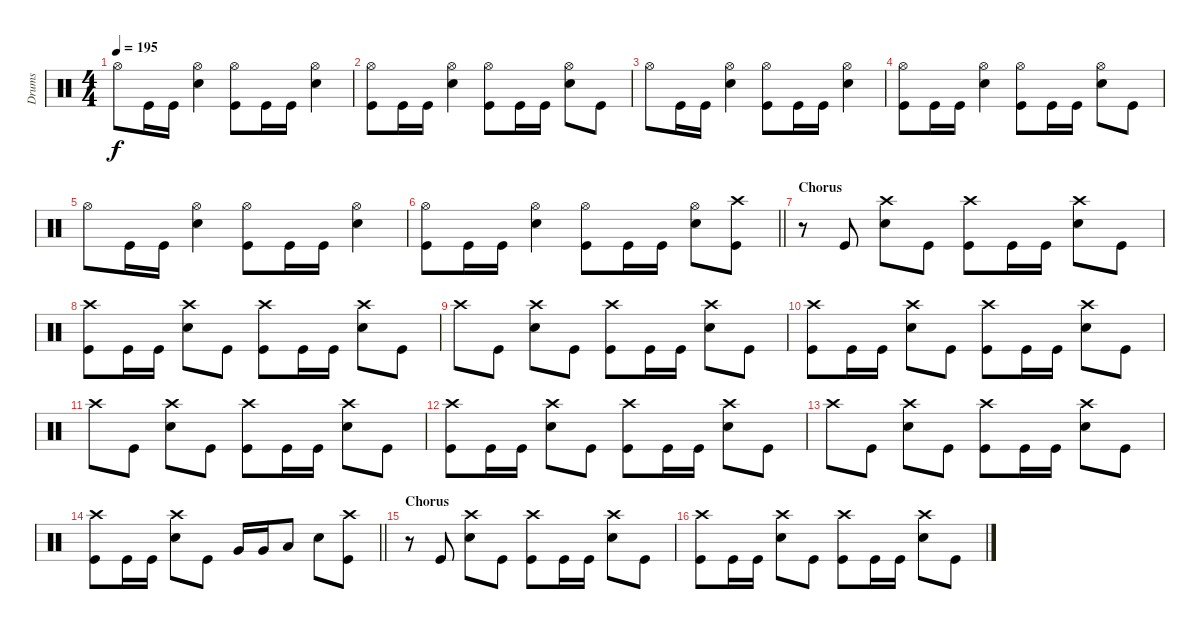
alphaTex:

\track ("Drums" "Drums") {instrument percussion}
\staff {score}
\articulation defaults
\ts (4 4)
\tempo 195
\clef neutral
\ks c "Hi-Hat (open)".8{dy f} "Kick (hit)".16 "Kick (hit)".16
("Snare (hit) 2" "Hi-Hat (open)").4 ("Kick (hit)" "Hi-Hat (open)").8 "Kick (hit)".16 "Kick (hit)".16 ("Snare (hit) 2" "Hi-Hat (open)").4 |
("Kick (hit)" "Hi-Hat (open)").8 "Kick (hit)".16 "Kick (hit)".16 ("Snare (hit) 2" "Hi-Hat (open)").4 ("Kick (hit)" "Hi-Hat (open)").8 "Kick (hit)".16 "Kick (hit)".16 ("Snare (hit) 2" "Hi-Hat (open)").8 "Kick (hit)".8 |
"Hi-Hat (open)".8 "Kick (hit)".16 "Kick (hit)".16 ("Snare (hit) 2" "Hi-Hat (open)").4 ("Kick (hit)" "Hi-Hat (open)").8 "Kick (hit)".16 "Kick (hit)".16 ("Snare (hit) 2" "Hi-Hat (open)").4 |
("Kick (hit)" "Hi-Hat (open)").8 "Kick (hit)".16 "Kick (hit)".16 ("Snare (hit) 2" "Hi-Hat (open)").4 ("Kick (hit)" "Hi-Hat (open)").8 "Kick (hit)".16 "Kick (hit)".16 ("Snare (hit) 2" "Hi-Hat (open)").8 "Kick (hit)".8 |
"Hi-Hat (open)".8 "Kick (hit)".16 "Kick (hit)".16 ("Snare (hit) 2" "Hi-Hat (open)").4 ("Kick (hit)" "Hi-Hat (open)").8 "Kick (hit)".16 "Kick (hit)".16 ("Snare (hit) 2" "Hi-Hat (open)").4 |
\barLineRight lightlight
("Kick (hit)" "Hi-Hat (open)").8 "Kick (hit)".16 "Kick (hit)".16 ("Snare (hit) 2" "Hi-Hat (open)").4 ("Kick (hit)" "Hi-Hat (open)").8 "Kick (hit)".16 "Kick (hit)".16 ("Snare (hit) 2" "Hi-Hat (open)").8 ("Kick (hit)" "Crash high (hit)").8 |
\section ("" "Chorus")
r.8 "Kick (hit)".8 ("Snare (hit) 2" "Crash high (hit)").8 "Kick (hit)".8 ("Kick (hit)" "Crash high (hit)").8 "Kick (hit)".16 "Kick (hit)".16 ("Snare (hit) 2" "Crash high (hit)").8 "Kick (hit)".8 |
("Kick (hit)" "Crash high (hit)").8 "Kick (hit)".16 "Kick (hit)".16 ("Snare (hit) 2" "Crash high (hit)").8 "Kick (hit)".8 ("Kick (hit)" "Crash high (hit)").8 "Kick (hit)".16 "Kick (hit)".16 ("Snare (hit) 2" "Crash high (hit)").8 "Kick (hit)".8 |
"Crash high (hit)".8 "Kick (hit)".8 ("Snare (hit) 2" "Crash high (hit)").8 "Kick (hit)".8 ("Kick (hit)" "Crash high (hit)").8 "Kick (hit)".16 "Kick (hit)".16 ("Snare (hit) 2" "Crash high (hit)").8 "Kick (hit)".8 |
("Kick (hit)" "Crash high (hit)").8 "Kick (hit)".16 "Kick (hit)".16 ("Snare (hit) 2" "Crash high (hit)").8 "Kick (hit)".8 ("Kick (hit)" "Crash high (hit)").8 "Kick (hit)".16 "Kick (hit)".16 ("Snare (hit) 2" "Crash high (hit)").8 "Kick (hit)".8 |
"Crash high (hit)".8 "Kick (hit)".8 ("Snare (hit) 2" "Crash high (hit)").8 "Kick (hit)".8 ("Kick (hit)" "Crash high (hit)").8 "Kick (hit)".16 "Kick (hit)".16 ("Snare (hit) 2" "Crash high (hit)").8 "Kick (hit)".8 |
("Kick (hit)" "Crash high (hit)").8 "Kick (hit)".16 "Kick (hit)".16 ("Snare (hit) 2" "Crash high (hit)").8 "Kick (hit)".8 ("Kick (hit)" "Crash high (hit)").8 "Kick (hit)".16 "Kick (hit)".16 ("Snare (hit) 2" "Crash high (hit)").8 "Kick (hit)".8 |
"Crash high (hit)".8 "Kick (hit)".8 ("Snare (hit) 2" "Crash high (hit)").8 "Kick (hit)".8 ("Kick (hit)" "Crash high (hit)").8 "Kick (hit)".16 "Kick (hit)".16 ("Snare (hit) 2" "Crash high (hit)").8 "Kick (hit)".8 |
\barLineRight lightlight
("Kick (hit)" "Crash high (hit)").8 "Kick (hit)".16 "Kick (hit)".16 ("Snare (hit) 2" "Crash high (hit)").8 "Kick (hit)".8 "Very Low Tom (hit)".16 "Very Low Tom (hit)".16 "Low Floor Tom (hit)".8 "Snare (hit) 2".8 ("Kick (hit)" "Crash high (hit)").8 |
\section ("" "Chorus")
r.8 "Kick (hit)".8 ("Snare (hit) 2" "Crash high (hit)").8 "Kick (hit)".8 ("Kick (hit)" "Crash high (hit)").8 "Kick (hit)".16 "Kick (hit)".16 ("Snare (hit) 2" "Crash high (hit)").8 "Kick (hit)".8 |
("Kick (hit)" "Crash high (hit)").8 "Kick (hit)".16 "Kick (hit)".16 ("Snare (hit) 2" "Crash high (hit)").8 "Kick (hit)".8 ("Kick (hit)" "Crash high (hit)").8 "Kick (hit)".16 "Kick (hit)".16 ("Snare (hit) 2" "Crash high (hit)").8 "Kick (hit)".8
